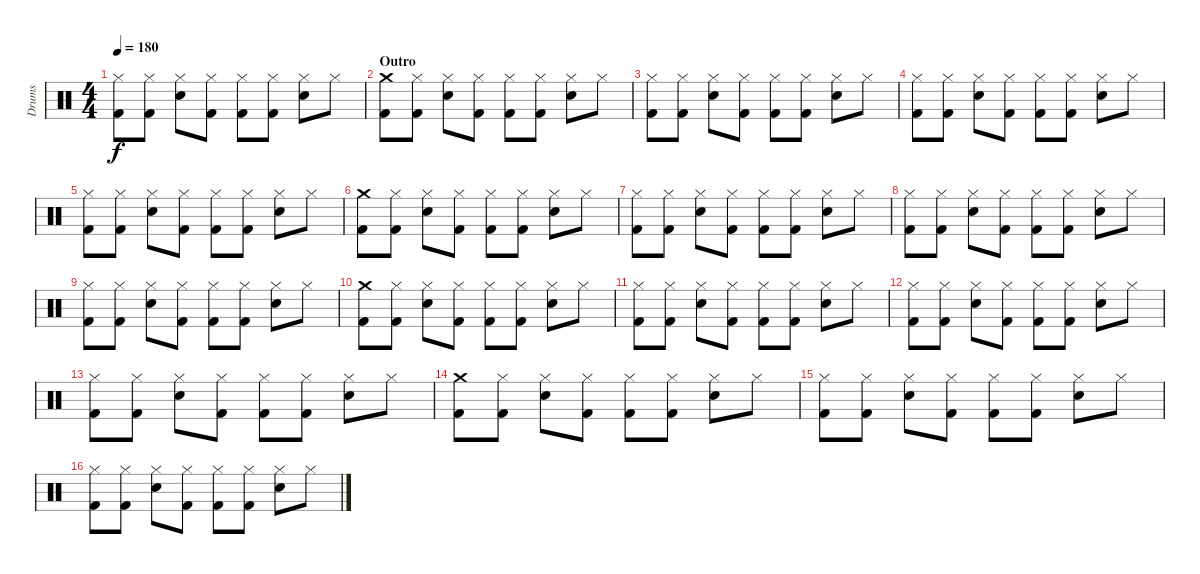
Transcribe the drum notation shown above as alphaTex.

\track ("Drums" "Drums") {instrument percussion}
\staff {score}
\articulation defaults
\ts (4 4)
\tempo 180
\clef neutral
\ks c
("Hi-Hat (closed)" "Kick (hit) 2").8{dy f} ("Hi-Hat (closed)" "Kick (hit) 2").8 ("Hi-Hat (closed)" "Electric Snare (hit)").8 ("Hi-Hat (closed)" "Kick (hit) 2").8 ("Hi-Hat (closed)" "Kick (hit) 2").8 ("Hi-Hat (closed)" "Kick (hit) 2").8 ("Hi-Hat (closed)" "Electric Snare (hit)").8 "Hi-Hat (closed)".8 |
\section ("" "Outro")
("Crash medium (hit)" "Kick (hit) 2").8 ("Hi-Hat (closed)" "Kick (hit) 2").8 ("Hi-Hat (closed)" "Electric Snare (hit)").8 ("Hi-Hat (closed)" "Kick (hit) 2").8 ("Hi-Hat (closed)" "Kick (hit) 2").8 ("Hi-Hat (closed)" "Kick (hit) 2").8 ("Hi-Hat (closed)" "Electric Snare (hit)").8 "Hi-Hat (closed)".8 |
("Hi-Hat (closed)" "Kick (hit) 2").8 ("Hi-Hat (closed)" "Kick (hit) 2").8 ("Hi-Hat (closed)" "Electric Snare (hit)").8 ("Hi-Hat (closed)" "Kick (hit) 2").8 ("Hi-Hat (closed)" "Kick (hit) 2").8 ("Hi-Hat (closed)" "Kick (hit) 2").8 ("Hi-Hat (closed)" "Electric Snare (hit)").8 "Hi-Hat (closed)".8 |
("Hi-Hat (closed)" "Kick (hit) 2").8 ("Hi-Hat (closed)" "Kick (hit) 2").8 ("Hi-Hat (closed)" "Electric Snare (hit)").8 ("Hi-Hat (closed)" "Kick (hit) 2").8 ("Hi-Hat (closed)" "Kick (hit) 2").8 ("Hi-Hat (closed)" "Kick (hit) 2").8 ("Hi-Hat (closed)" "Electric Snare (hit)").8 "Hi-Hat (closed)".8 |
("Hi-Hat (closed)" "Kick (hit) 2").8 ("Hi-Hat (closed)" "Kick (hit) 2").8 ("Hi-Hat (closed)" "Electric Snare (hit)").8 ("Hi-Hat (closed)" "Kick (hit) 2").8 ("Hi-Hat (closed)" "Kick (hit) 2").8 ("Hi-Hat (closed)" "Kick (hit) 2").8 ("Hi-Hat (closed)" "Electric Snare (hit)").8 "Hi-Hat (closed)".8 |
("Crash medium (hit)" "Kick (hit) 2").8 ("Hi-Hat (closed)" "Kick (hit) 2").8 ("Hi-Hat (closed)" "Electric Snare (hit)").8 ("Hi-Hat (closed)" "Kick (hit) 2").8 ("Hi-Hat (closed)" "Kick (hit) 2").8 ("Hi-Hat (closed)" "Kick (hit) 2").8 ("Hi-Hat (closed)" "Electric Snare (hit)").8 "Hi-Hat (closed)".8 |
("Hi-Hat (closed)" "Kick (hit) 2").8 ("Hi-Hat (closed)" "Kick (hit) 2").8 ("Hi-Hat (closed)" "Electric Snare (hit)").8 ("Hi-Hat (closed)" "Kick (hit) 2").8 ("Hi-Hat (closed)" "Kick (hit) 2").8 ("Hi-Hat (closed)" "Kick (hit) 2").8 ("Hi-Hat (closed)" "Electric Snare (hit)").8 "Hi-Hat (closed)".8 |
("Hi-Hat (closed)" "Kick (hit) 2").8 ("Hi-Hat (closed)" "Kick (hit) 2").8 ("Hi-Hat (closed)" "Electric Snare (hit)").8 ("Hi-Hat (closed)" "Kick (hit) 2").8 ("Hi-Hat (closed)" "Kick (hit) 2").8 ("Hi-Hat (closed)" "Kick (hit) 2").8 ("Hi-Hat (closed)" "Electric Snare (hit)").8 "Hi-Hat (closed)".8 |
("Hi-Hat (closed)" "Kick (hit) 2").8 ("Hi-Hat (closed)" "Kick (hit) 2").8 ("Hi-Hat (closed)" "Electric Snare (hit)").8 ("Hi-Hat (closed)" "Kick (hit) 2").8 ("Hi-Hat (closed)" "Kick (hit) 2").8 ("Hi-Hat (closed)" "Kick (hit) 2").8 ("Hi-Hat (closed)" "Electric Snare (hit)").8 "Hi-Hat (closed)".8 |
("Crash medium (hit)" "Kick (hit) 2").8 ("Hi-Hat (closed)" "Kick (hit) 2").8 ("Hi-Hat (closed)" "Electric Snare (hit)").8 ("Hi-Hat (closed)" "Kick (hit) 2").8 ("Hi-Hat (closed)" "Kick (hit) 2").8 ("Hi-Hat (closed)" "Kick (hit) 2").8 ("Hi-Hat (closed)" "Electric Snare (hit)").8 "Hi-Hat (closed)".8 |
("Hi-Hat (closed)" "Kick (hit) 2").8 ("Hi-Hat (closed)" "Kick (hit) 2").8 ("Hi-Hat (closed)" "Electric Snare (hit)").8 ("Hi-Hat (closed)" "Kick (hit) 2").8 ("Hi-Hat (closed)" "Kick (hit) 2").8 ("Hi-Hat (closed)" "Kick (hit) 2").8 ("Hi-Hat (closed)" "Electric Snare (hit)").8 "Hi-Hat (closed)".8 |
("Hi-Hat (closed)" "Kick (hit) 2").8 ("Hi-Hat (closed)" "Kick (hit) 2").8 ("Hi-Hat (closed)" "Electric Snare (hit)").8 ("Hi-Hat (closed)" "Kick (hit) 2").8 ("Hi-Hat (closed)" "Kick (hit) 2").8 ("Hi-Hat (closed)" "Kick (hit) 2").8 ("Hi-Hat (closed)" "Electric Snare (hit)").8 "Hi-Hat (closed)".8 |
("Hi-Hat (closed)" "Kick (hit) 2").8 ("Hi-Hat (closed)" "Kick (hit) 2").8 ("Hi-Hat (closed)" "Electric Snare (hit)").8 ("Hi-Hat (closed)" "Kick (hit) 2").8 ("Hi-Hat (closed)" "Kick (hit) 2").8 ("Hi-Hat (closed)" "Kick (hit) 2").8 ("Hi-Hat (closed)" "Electric Snare (hit)").8 "Hi-Hat (closed)".8 |
("Crash medium (hit)" "Kick (hit) 2").8 ("Hi-Hat (closed)" "Kick (hit) 2").8 ("Hi-Hat (closed)" "Electric Snare (hit)").8 ("Hi-Hat (closed)" "Kick (hit) 2").8 ("Hi-Hat (closed)" "Kick (hit) 2").8 ("Hi-Hat (closed)" "Kick (hit) 2").8 ("Hi-Hat (closed)" "Electric Snare (hit)").8 "Hi-Hat (closed)".8 |
("Hi-Hat (closed)" "Kick (hit) 2").8 ("Hi-Hat (closed)" "Kick (hit) 2").8 ("Hi-Hat (closed)" "Electric Snare (hit)").8 ("Hi-Hat (closed)" "Kick (hit) 2").8 ("Hi-Hat (closed)" "Kick (hit) 2").8 ("Hi-Hat (closed)" "Kick (hit) 2").8 ("Hi-Hat (closed)" "Electric Snare (hit)").8 "Hi-Hat (closed)".8 |
("Hi-Hat (closed)" "Kick (hit) 2").8 ("Hi-Hat (closed)" "Kick (hit) 2").8 ("Hi-Hat (closed)" "Electric Snare (hit)").8 ("Hi-Hat (closed)" "Kick (hit) 2").8 ("Hi-Hat (closed)" "Kick (hit) 2").8 ("Hi-Hat (closed)" "Kick (hit) 2").8 ("Hi-Hat (closed)" "Electric Snare (hit)").8 "Hi-Hat (closed)".8
